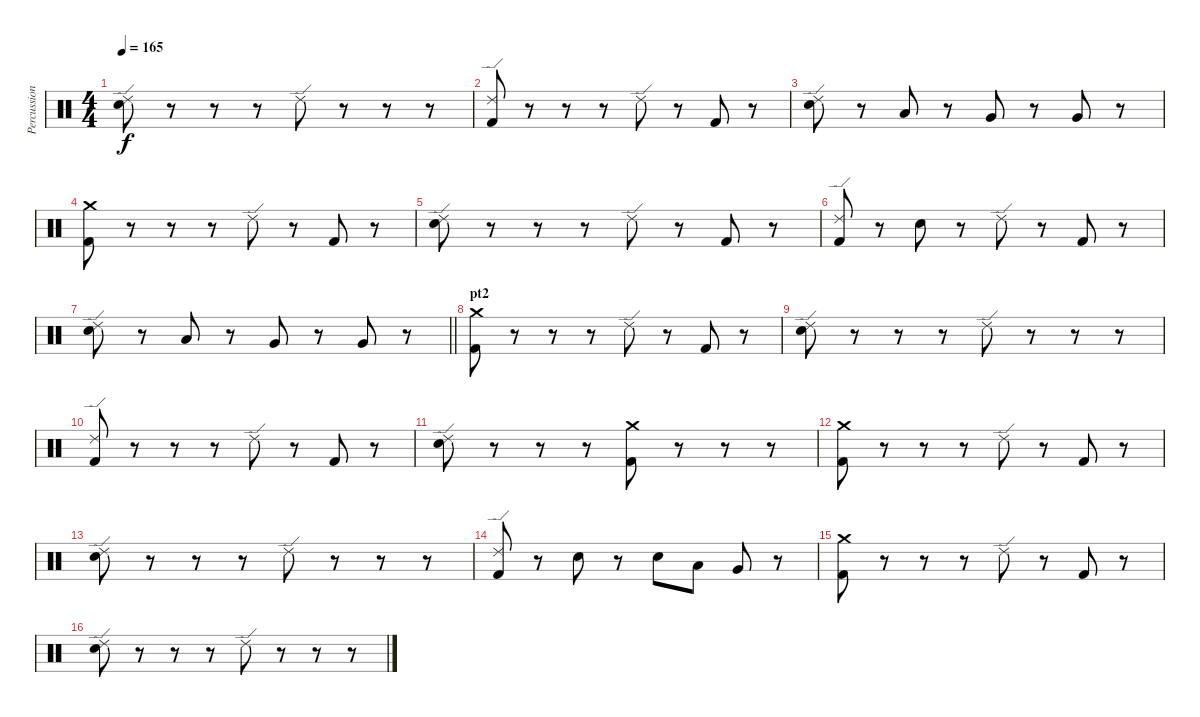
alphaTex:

\track ("Percussion" "Percussion") {instrument percussion}
\staff {score}
\articulation defaults
\ts (4 4)
\tempo 165
\clef neutral
\ks c
("Ride (edge) 2" "Electric Snare (hit)").8{dy f} r.8 r.8 r.8 "Ride (edge) 2".8 r.8 r.8 r.8 |
("Ride (edge) 2" "Kick (hit) 2").8 r.8 r.8 r.8 "Ride (edge) 2".8 r.8 "Kick (hit) 2".8 r.8 |
("Ride (edge) 2" "Electric Snare (hit)").8 r.8 "Low Tom (hit)".8 r.8 "Very Low Tom (hit)".8 r.8 "Very Low Tom (hit)".8 r.8 |
("Crash medium (hit)" "Kick (hit) 2").8 r.8 r.8 r.8 "Ride (edge) 2".8 r.8 "Kick (hit) 2".8 r.8 |
("Ride (edge) 2" "Electric Snare (hit)").8 r.8 r.8 r.8 "Ride (edge) 2".8 r.8 "Kick (hit) 2".8 r.8 |
("Ride (edge) 2" "Kick (hit) 2").8 r.8 "Electric Snare (hit)".8 r.8 "Ride (edge) 2".8 r.8 "Kick (hit) 2".8 r.8 |
\barLineRight lightlight
("Ride (edge) 2" "Electric Snare (hit)").8 r.8 "Low Tom (hit)".8 r.8 "Very Low Tom (hit)".8 r.8 "Very Low Tom (hit)".8 r.8 |
\section ("" "pt2")
("Kick (hit) 2" "Crash medium (hit)").8 r.8 r.8 r.8 "Ride (edge) 2".8 r.8 "Kick (hit) 2".8 r.8 |
("Ride (edge) 2" "Electric Snare (hit)").8 r.8 r.8 r.8 "Ride (edge) 2".8 r.8 r.8 r.8 |
("Ride (edge) 2" "Kick (hit) 2").8 r.8 r.8 r.8 "Ride (edge) 2".8 r.8 "Kick (hit) 2".8 r.8 |
("Ride (edge) 2" "Electric Snare (hit)").8 r.8 r.8 r.8 ("Crash medium (hit)" "Kick (hit) 2").8 r.8 r.8 r.8 |
("Crash medium (hit)" "Kick (hit) 2").8 r.8 r.8 r.8 "Ride (edge) 2".8 r.8 "Kick (hit) 2".8 r.8 |
("Ride (edge) 2" "Electric Snare (hit)").8 r.8 r.8 r.8 "Ride (edge) 2".8 r.8 r.8 r.8 |
("Ride (edge) 2" "Kick (hit) 2").8 r.8 "Electric Snare (hit)".8 r.8 "Electric Snare (hit)".8 "Low Tom (hit)".8 "Very Low Tom (hit)".8 r.8 |
("Kick (hit) 2" "Crash medium (hit)").8 r.8 r.8 r.8 "Ride (edge) 2".8 r.8 "Kick (hit) 2".8 r.8 |
("Ride (edge) 2" "Electric Snare (hit)").8 r.8 r.8 r.8 "Ride (edge) 2".8 r.8 r.8 r.8
